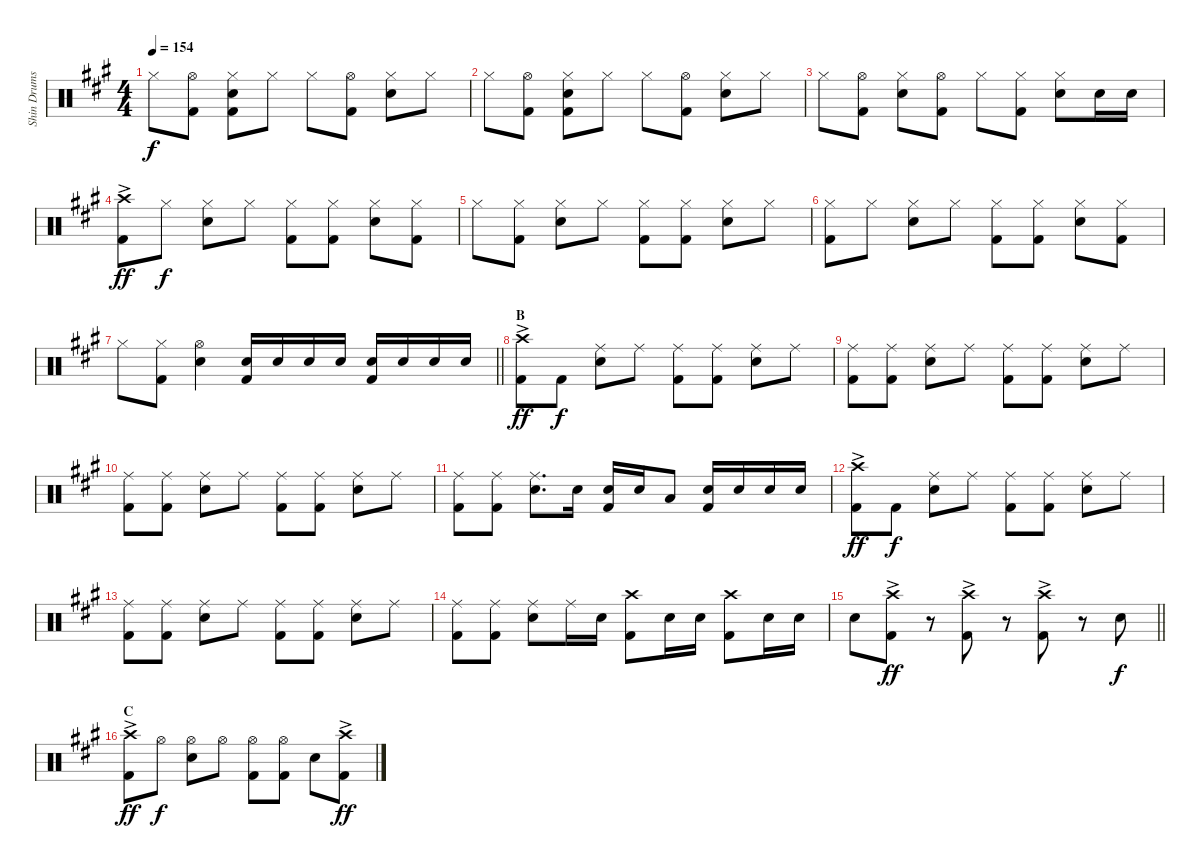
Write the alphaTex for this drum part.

\track ("Shin Drums" "Shin Drums") {instrument percussion}
\staff {score}
\articulation defaults
\ts (4 4)
\tempo 154
\clef neutral
\ks a "Hi-Hat (closed)".8{dy f}
("Hi-Hat (open)" "Kick (hit) 2").8 ("Hi-Hat (closed)" "Snare (hit) 2" "Kick (hit) 2").8 "Hi-Hat (closed)".8 "Hi-Hat (closed)".8 ("Hi-Hat (open)" "Kick (hit) 2").8 ("Hi-Hat (closed)" "Snare (hit) 2").8 "Hi-Hat (closed)".8 |
"Hi-Hat (closed)".8 ("Hi-Hat (open)" "Kick (hit) 2").8 ("Hi-Hat (closed)" "Snare (hit) 2" "Kick (hit) 2").8 "Hi-Hat (closed)".8 "Hi-Hat (closed)".8 ("Hi-Hat (open)" "Kick (hit) 2").8 ("Hi-Hat (closed)" "Snare (hit) 2").8 "Hi-Hat (closed)".8 |
"Hi-Hat (closed)".8 ("Hi-Hat (open)" "Kick (hit) 2").8 ("Hi-Hat (closed)" "Snare (hit) 2").8 ("Hi-Hat (open)" "Kick (hit) 2").8 "Hi-Hat (closed)".8 ("Hi-Hat (closed)" "Kick (hit) 2").8 ("Hi-Hat (closed)" "Snare (hit) 2").8 "Snare (hit) 2".16 "Snare (hit) 2".16 |
("Crash high (hit)"{ac} "Kick (hit) 2").8{dy ff} "Hi-Hat (closed)".8{dy f} ("Hi-Hat (closed)" "Snare (hit) 2").8 "Hi-Hat (closed)".8 ("Hi-Hat (closed)" "Kick (hit) 2").8 ("Hi-Hat (closed)" "Kick (hit) 2").8 ("Hi-Hat (closed)" "Snare (hit) 2").8 ("Hi-Hat (closed)" "Kick (hit) 2").8 |
"Hi-Hat (closed)".8 ("Hi-Hat (closed)" "Kick (hit) 2").8 ("Hi-Hat (closed)" "Snare (hit) 2").8 "Hi-Hat (closed)".8 ("Hi-Hat (closed)" "Kick (hit) 2").8 ("Hi-Hat (closed)" "Kick (hit) 2").8 ("Hi-Hat (closed)" "Snare (hit) 2").8 "Hi-Hat (closed)".8 |
("Hi-Hat (closed)" "Kick (hit) 2").8 "Hi-Hat (closed)".8 ("Hi-Hat (closed)" "Snare (hit) 2").8 "Hi-Hat (closed)".8 ("Hi-Hat (closed)" "Kick (hit) 2").8 ("Hi-Hat (closed)" "Kick (hit) 2").8 ("Hi-Hat (closed)" "Snare (hit) 2").8 ("Hi-Hat (closed)" "Kick (hit) 2").8 |
\barLineRight lightlight "Hi-Hat (closed)".8
("Hi-Hat (closed)" "Kick (hit) 2").8 ("Hi-Hat (open)" "Snare (hit) 2").4 ("Snare (hit) 2" "Kick (hit) 2").16 "Snare (hit) 2".16 "Snare (hit) 2".16 "Snare (hit) 2".16 ("Snare (hit) 2" "Kick (hit) 2").16 "Snare (hit) 2".16 "Snare (hit) 2".16 "Snare (hit) 2".16 |
\section ("" "B")
("Crash high (hit)"{ac} "Kick (hit) 2").8{dy ff} "Kick (hit) 2".8{dy f} ("Ride (middle)" "Snare (hit) 2").8 "Ride (middle)".8 ("Ride (middle)" "Kick (hit) 2").8 ("Ride (middle)" "Kick (hit) 2").8 ("Ride (middle)" "Snare (hit) 2").8 "Ride (middle)".8 |
("Ride (middle)" "Kick (hit) 2").8 ("Ride (middle)" "Kick (hit) 2").8 ("Ride (middle)" "Snare (hit) 2").8 "Ride (middle)".8 ("Ride (middle)" "Kick (hit) 2").8 ("Ride (middle)" "Kick (hit) 2").8 ("Ride (middle)" "Snare (hit) 2").8 "Ride (middle)".8 |
("Ride (middle)" "Kick (hit) 2").8 ("Ride (middle)" "Kick (hit) 2").8 ("Ride (middle)" "Snare (hit) 2").8 "Ride (middle)".8 ("Ride (middle)" "Kick (hit) 2").8 ("Ride (middle)" "Kick (hit) 2").8 ("Ride (middle)" "Snare (hit) 2").8 "Ride (middle)".8 |
("Ride (middle)" "Kick (hit) 2").8 ("Ride (middle)" "Kick (hit) 2").8 ("Ride (middle)" "Snare (hit) 2").8{d} "Snare (hit) 2".16 ("Snare (hit) 2" "Kick (hit) 2").16 "Snare (hit) 2".16 "Low Tom (hit)".8 ("Snare (hit) 2" "Kick (hit) 2").16 "Snare (hit) 2".16 "Snare (hit) 2".16 "Snare (hit) 2".16 |
("Crash high (hit)"{ac} "Kick (hit) 2").8{dy ff} "Kick (hit) 2".8{dy f} ("Ride (middle)" "Snare (hit) 2").8 "Ride (middle)".8 ("Ride (middle)" "Kick (hit) 2").8 ("Ride (middle)" "Kick (hit) 2").8 ("Ride (middle)" "Snare (hit) 2").8 "Ride (middle)".8 |
("Ride (middle)" "Kick (hit) 2").8 ("Ride (middle)" "Kick (hit) 2").8 ("Ride (middle)" "Snare (hit) 2").8 "Ride (middle)".8 ("Ride (middle)" "Kick (hit) 2").8 ("Ride (middle)" "Kick (hit) 2").8 ("Ride (middle)" "Snare (hit) 2").8 "Ride (middle)".8 |
("Ride (middle)" "Kick (hit) 2").8 ("Ride (middle)" "Kick (hit) 2").8 ("Ride (middle)" "Snare (hit) 2").8 "Ride (middle)".16 "Snare (hit) 2".16 ("Crash high (hit)" "Kick (hit) 2").8 "Snare (hit) 2".16 "Snare (hit) 2".16 ("Crash high (hit)" "Kick (hit) 2").8 "Snare (hit) 2".16 "Snare (hit) 2".16 |
\barLineRight lightlight "Snare (hit) 2".8
("Crash high (hit)"{ac} "Kick (hit) 2").8{dy ff} r.8 ("Crash high (hit)"{ac} "Kick (hit) 2").8 r.8 ("Crash high (hit)"{ac} "Kick (hit) 2").8 r.8 "Snare (hit) 2".8{dy f} |
\section ("" "C")
("Crash high (hit)"{ac} "Kick (hit) 2").8{dy ff} "Hi-Hat (open)".8{dy f} ("Hi-Hat (open)" "Snare (hit) 2").8 "Hi-Hat (open)".8 ("Hi-Hat (open)" "Kick (hit) 2").8 ("Hi-Hat (open)" "Kick (hit) 2").8 "Snare (hit) 2".8 ("Crash high (hit)"{ac} "Kick (hit) 2").8{dy ff}
